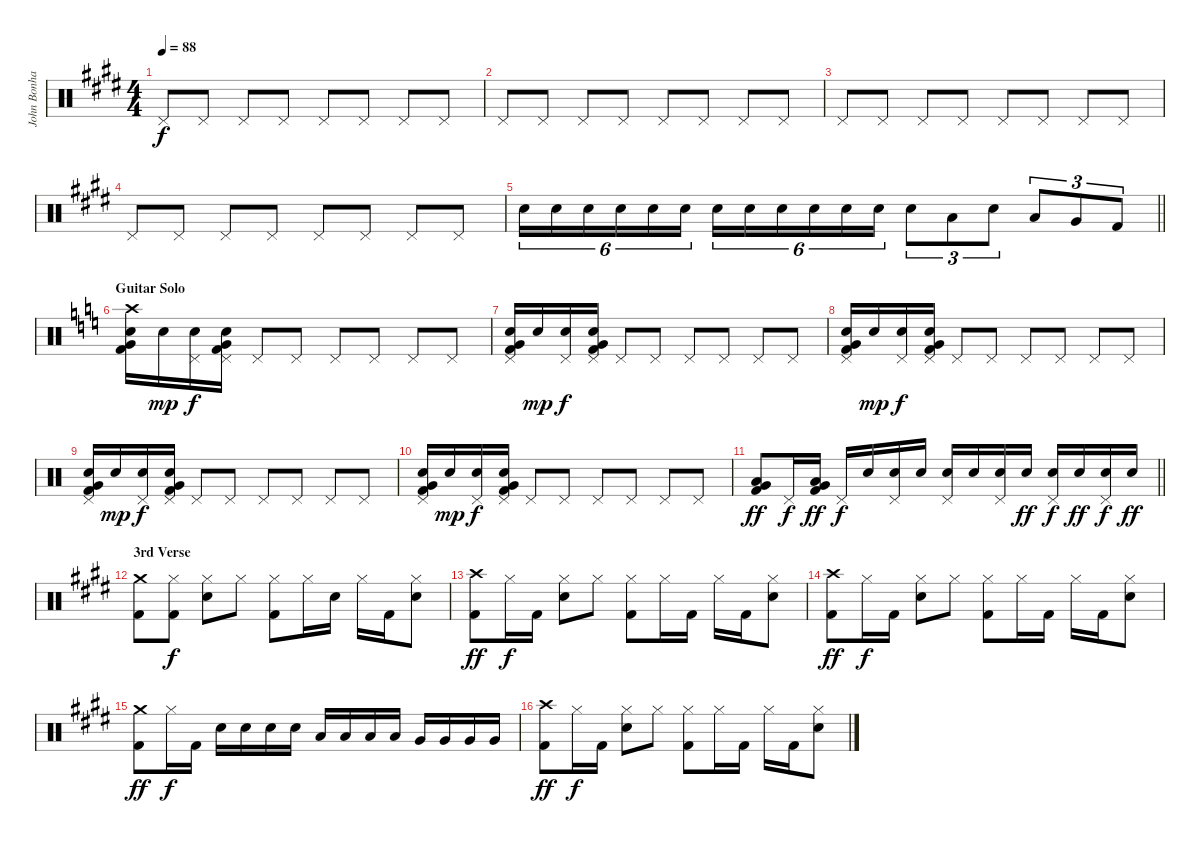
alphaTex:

\track ("John Bonham Drums" "John Bonha") {instrument percussion}
\staff {score}
\articulation defaults
\ts (4 4)
\tempo 88
\clef neutral
\ks e "Pedal Hi-Hat (hit)".8{dy f} "Pedal Hi-Hat (hit)".8 "Pedal Hi-Hat (hit)".8 "Pedal Hi-Hat (hit)".8 "Pedal Hi-Hat (hit)".8 "Pedal Hi-Hat (hit)".8 "Pedal Hi-Hat (hit)".8 "Pedal Hi-Hat (hit)".8
|
"Pedal Hi-Hat (hit)".8 "Pedal Hi-Hat (hit)".8 "Pedal Hi-Hat (hit)".8 "Pedal Hi-Hat (hit)".8 "Pedal Hi-Hat (hit)".8 "Pedal Hi-Hat (hit)".8 "Pedal Hi-Hat (hit)".8 "Pedal Hi-Hat (hit)".8 |
"Pedal Hi-Hat (hit)".8 "Pedal Hi-Hat (hit)".8 "Pedal Hi-Hat (hit)".8 "Pedal Hi-Hat (hit)".8 "Pedal Hi-Hat (hit)".8 "Pedal Hi-Hat (hit)".8 "Pedal Hi-Hat (hit)".8 "Pedal Hi-Hat (hit)".8 |
"Pedal Hi-Hat (hit)".8 "Pedal Hi-Hat (hit)".8 "Pedal Hi-Hat (hit)".8 "Pedal Hi-Hat (hit)".8 "Pedal Hi-Hat (hit)".8 "Pedal Hi-Hat (hit)".8 "Pedal Hi-Hat (hit)".8 "Pedal Hi-Hat (hit)".8 |
\barLineRight lightlight "Snare (hit) 2".16{tu (6 4)} "Snare (hit) 2".16{tu (6 4)} "Snare (hit) 2".16{tu (6 4)} "Snare (hit) 2".16{tu (6 4)} "Snare (hit) 2".16{tu (6 4)} "Snare (hit) 2".16{tu (6 4)} "Snare (hit) 2".16{tu (6 4)} "Snare (hit) 2".16{tu (6 4)} "Snare (hit) 2".16{tu (6 4)} "Snare (hit) 2".16{tu (6 4)} "Snare (hit) 2".16{tu (6 4)} "Snare (hit) 2".16{tu (6 4)} "Snare (hit) 2".8{tu (3 2)} "Low Tom (hit)".8{tu (3 2)} "Snare (hit) 2".8{tu (3 2)} "Low Tom (hit)".8{tu (3 2)} "Very Low Tom (hit)".8{tu (3 2)} "Kick (hit) 2".8{tu (3 2)}
|
\section ("" "Guitar Solo")
\ks c
("Crash high (hit)" "Snare (hit) 2" "Very Low Tom (hit)" "Kick (hit) 2").16 "Snare (hit) 2".16{dy mp} ("Pedal Hi-Hat (hit)" "Snare (hit) 2").16{dy f} ("Pedal Hi-Hat (hit)" "Snare (hit) 2" "Very Low Tom (hit)" "Kick (hit) 2").16 "Pedal Hi-Hat (hit)".8 "Pedal Hi-Hat (hit)".8 "Pedal Hi-Hat (hit)".8 "Pedal Hi-Hat (hit)".8 "Pedal Hi-Hat (hit)".8 "Pedal Hi-Hat (hit)".8 |
("Pedal Hi-Hat (hit)" "Snare (hit) 2" "Very Low Tom (hit)" "Kick (hit) 2").16 "Snare (hit) 2".16{dy mp} ("Pedal Hi-Hat (hit)" "Snare (hit) 2").16{dy f} ("Pedal Hi-Hat (hit)" "Snare (hit) 2" "Very Low Tom (hit)" "Kick (hit) 2").16 "Pedal Hi-Hat (hit)".8 "Pedal Hi-Hat (hit)".8 "Pedal Hi-Hat (hit)".8 "Pedal Hi-Hat (hit)".8 "Pedal Hi-Hat (hit)".8 "Pedal Hi-Hat (hit)".8 |
("Pedal Hi-Hat (hit)" "Snare (hit) 2" "Very Low Tom (hit)" "Kick (hit) 2").16 "Snare (hit) 2".16{dy mp} ("Pedal Hi-Hat (hit)" "Snare (hit) 2").16{dy f} ("Pedal Hi-Hat (hit)" "Snare (hit) 2" "Very Low Tom (hit)" "Kick (hit) 2").16 "Pedal Hi-Hat (hit)".8 "Pedal Hi-Hat (hit)".8 "Pedal Hi-Hat (hit)".8 "Pedal Hi-Hat (hit)".8 "Pedal Hi-Hat (hit)".8 "Pedal Hi-Hat (hit)".8 |
("Pedal Hi-Hat (hit)" "Snare (hit) 2" "Very Low Tom (hit)" "Kick (hit) 2").16 "Snare (hit) 2".16{dy mp} ("Pedal Hi-Hat (hit)" "Snare (hit) 2").16{dy f} ("Pedal Hi-Hat (hit)" "Snare (hit) 2" "Very Low Tom (hit)" "Kick (hit) 2").16 "Pedal Hi-Hat (hit)".8 "Pedal Hi-Hat (hit)".8 "Pedal Hi-Hat (hit)".8 "Pedal Hi-Hat (hit)".8 "Pedal Hi-Hat (hit)".8 "Pedal Hi-Hat (hit)".8 |
("Pedal Hi-Hat (hit)" "Snare (hit) 2" "Very Low Tom (hit)" "Kick (hit) 2").16 "Snare (hit) 2".16{dy mp} ("Pedal Hi-Hat (hit)" "Snare (hit) 2").16{dy f} ("Pedal Hi-Hat (hit)" "Snare (hit) 2" "Very Low Tom (hit)" "Kick (hit) 2").16 "Pedal Hi-Hat (hit)".8 "Pedal Hi-Hat (hit)".8 "Pedal Hi-Hat (hit)".8 "Pedal Hi-Hat (hit)".8 "Pedal Hi-Hat (hit)".8 "Pedal Hi-Hat (hit)".8 |
\barLineRight lightlight
("Very Low Tom (hit)" "Low Tom (hit)" "Kick (hit) 2").8{dy ff} "Pedal Hi-Hat (hit)".16{dy f} ("Very Low Tom (hit)" "Low Tom (hit)" "Kick (hit) 2").16{dy ff} "Pedal Hi-Hat (hit)".16{dy f} "Snare (hit) 2".16 ("Pedal Hi-Hat (hit)" "Snare (hit) 2").16 "Snare (hit) 2".16 ("Pedal Hi-Hat (hit)" "Snare (hit) 2").16 "Snare (hit) 2".16 ("Pedal Hi-Hat (hit)" "Snare (hit) 2").16 "Snare (hit) 2".16{dy ff} ("Pedal Hi-Hat (hit)" "Snare (hit) 2").16{dy f} "Snare (hit) 2".16{dy ff} ("Pedal Hi-Hat (hit)" "Snare (hit) 2").16{dy f} "Snare (hit) 2".16{dy ff} |
\section ("" "3rd Verse")
\ks e
("Crash medium (hit)" "Kick (hit) 2").8 ("Hi-Hat (closed)" "Kick (hit) 2").8{dy f} ("Hi-Hat (closed)" "Snare (hit) 2").8 "Hi-Hat (closed)".8 ("Hi-Hat (closed)" "Kick (hit) 2").8 "Hi-Hat (closed)".16 "Snare (hit) 2".16 "Hi-Hat (closed)".16 "Kick (hit) 2".16 ("Hi-Hat (closed)" "Snare (hit) 2").8 |
("Crash high (hit)" "Kick (hit) 2").8{dy ff} "Hi-Hat (closed)".16{dy f} "Kick (hit) 2".16 ("Hi-Hat (closed)" "Snare (hit) 2").8 "Hi-Hat (closed)".8 ("Hi-Hat (closed)" "Kick (hit) 2").8 "Hi-Hat (closed)".16 "Kick (hit) 2".16 "Hi-Hat (closed)".16 "Kick (hit) 2".16 ("Hi-Hat (closed)" "Snare (hit) 2").8 |
("Crash high (hit)" "Kick (hit) 2").8{dy ff} "Hi-Hat (closed)".16{dy f} "Kick (hit) 2".16 ("Hi-Hat (closed)" "Snare (hit) 2").8 "Hi-Hat (closed)".8 ("Hi-Hat (closed)" "Kick (hit) 2").8 "Hi-Hat (closed)".16 "Kick (hit) 2".16 "Hi-Hat (closed)".16 "Kick (hit) 2".16 ("Hi-Hat (closed)" "Snare (hit) 2").8 |
("Crash medium (hit)" "Kick (hit) 2").8{dy ff} "Hi-Hat (closed)".16{dy f} "Kick (hit) 2".16 "Snare (hit) 2".16 "Snare (hit) 2".16 "Snare (hit) 2".16 "Snare (hit) 2".16 "Low Tom (hit)".16 "Low Tom (hit)".16 "Low Tom (hit)".16 "Low Tom (hit)".16 "Very Low Tom (hit)".16 "Very Low Tom (hit)".16 "Very Low Tom (hit)".16 "Very Low Tom (hit)".16 |
("Crash high (hit)" "Kick (hit) 2").8{dy ff} "Hi-Hat (closed)".16{dy f} "Kick (hit) 2".16 ("Hi-Hat (closed)" "Snare (hit) 2").8 "Hi-Hat (closed)".8 ("Hi-Hat (closed)" "Kick (hit) 2").8 "Hi-Hat (closed)".16 "Kick (hit) 2".16 "Hi-Hat (closed)".16 "Kick (hit) 2".16 ("Hi-Hat (closed)" "Snare (hit) 2").8
